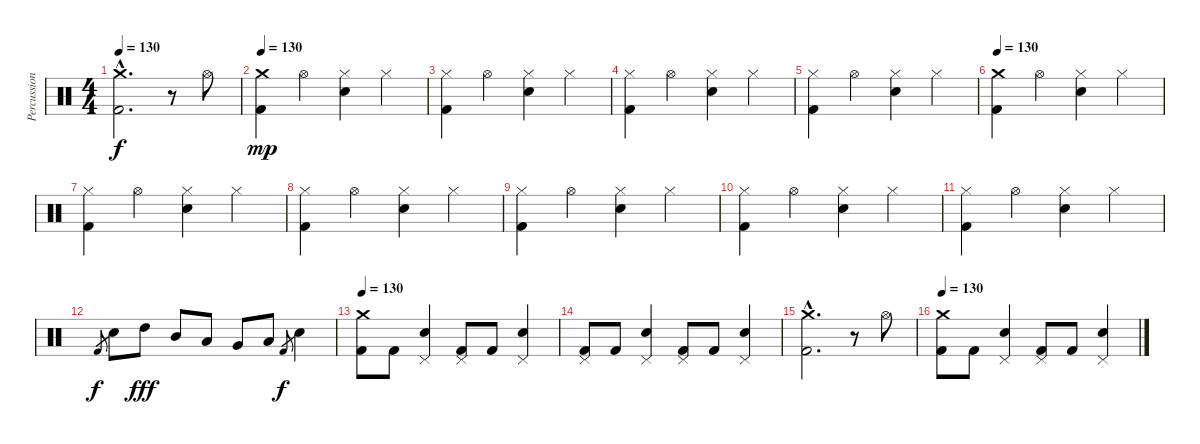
\track ("Percussions" "Percussion") {instrument percussion}
\staff {score}
\articulation defaults
\ts (4 4)
\tempo 130
\clef neutral
\ks c
("Crash medium (hit)"{hac} "Kick (hit) 2"{hac}).2{d dy f} r.8 "Hi-Hat (open)".8 |
\tempo 130
("Crash medium (hit)" "Kick (hit) 2").4{dy mp} "Hi-Hat (open)".4 ("Hi-Hat (closed)" "Snare (hit) 2").4 "Hi-Hat (closed)".4 |
("Hi-Hat (closed)" "Kick (hit) 2").4 "Hi-Hat (open)".4 ("Hi-Hat (closed)" "Snare (hit) 2").4 "Hi-Hat (closed)".4 |
("Hi-Hat (closed)" "Kick (hit) 2").4 "Hi-Hat (open)".4 ("Hi-Hat (closed)" "Snare (hit) 2").4 "Hi-Hat (closed)".4 |
("Hi-Hat (closed)" "Kick (hit) 2").4 "Hi-Hat (open)".4 ("Hi-Hat (closed)" "Snare (hit) 2").4 "Hi-Hat (closed)".4 |
\tempo 130
("Crash medium (hit)" "Kick (hit) 2").4 "Hi-Hat (open)".4 ("Hi-Hat (closed)" "Snare (hit) 2").4 "Hi-Hat (closed)".4 |
("Hi-Hat (closed)" "Kick (hit) 2").4 "Hi-Hat (open)".4 ("Hi-Hat (closed)" "Snare (hit) 2").4 "Hi-Hat (closed)".4 |
("Hi-Hat (closed)" "Kick (hit) 2").4 "Hi-Hat (open)".4 ("Hi-Hat (closed)" "Snare (hit) 2").4 "Hi-Hat (closed)".4 |
("Hi-Hat (closed)" "Kick (hit) 2").4 "Hi-Hat (open)".4 ("Hi-Hat (closed)" "Snare (hit) 2").4 "Hi-Hat (closed)".4 |
("Hi-Hat (closed)" "Kick (hit) 2").4 "Hi-Hat (open)".4 ("Hi-Hat (closed)" "Snare (hit) 2").4 "Hi-Hat (closed)".4 |
("Hi-Hat (closed)" "Kick (hit) 2").4 "Hi-Hat (open)".4 ("Hi-Hat (closed)" "Snare (hit) 2").4 "Hi-Hat (closed)".4 |
"Kick (hit) 2".8{gr dy f} "Snare (hit) 2".8 "High Tom (hit)".8{dy fff} "Mid Tom (hit)".8 "Low Tom (hit)".8 "Very Low Tom (hit)".8 "Low Floor Tom (hit)".8 "Kick (hit) 2".8{gr dy f} "Snare (hit) 2".4 |
\tempo 120
\tempo 130
("Crash medium (hit)" "Kick (hit) 2").8 "Kick (hit) 2".8 ("Pedal Hi-Hat (hit)" "Snare (hit) 2").4 ("Pedal Hi-Hat (hit)" "Kick (hit) 2").8 "Kick (hit) 2".8 ("Pedal Hi-Hat (hit)" "Snare (hit) 2").4 |
("Pedal Hi-Hat (hit)" "Kick (hit) 2").8 "Kick (hit) 2".8 ("Pedal Hi-Hat (hit)" "Snare (hit) 2").4 ("Pedal Hi-Hat (hit)" "Kick (hit) 2").8 "Kick (hit) 2".8 ("Pedal Hi-Hat (hit)" "Snare (hit) 2").4 |
("Crash medium (hit)"{hac} "Kick (hit) 2"{hac}).2{d} r.8 "Hi-Hat (open)".8 |
\tempo 130
("Crash medium (hit)" "Kick (hit) 2").8 "Kick (hit) 2".8 ("Pedal Hi-Hat (hit)" "Snare (hit) 2").4 ("Pedal Hi-Hat (hit)" "Kick (hit) 2").8 "Kick (hit) 2".8 ("Pedal Hi-Hat (hit)" "Snare (hit) 2").4
